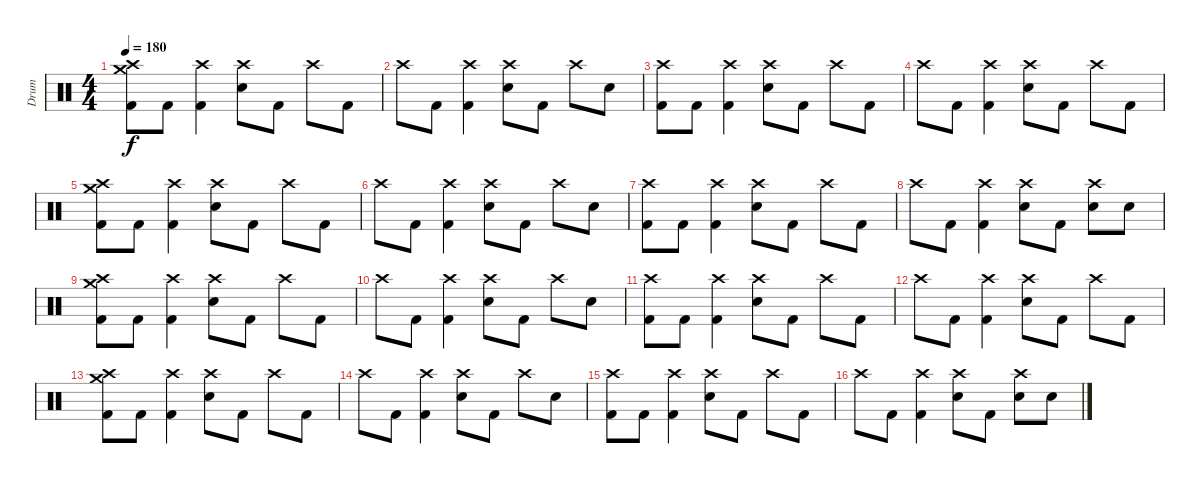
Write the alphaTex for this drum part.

\track ("Drum" "Drum") {instrument percussion}
\staff {score}
\articulation defaults
\ts (4 4)
\section ("" "")
\tempo 180
\clef neutral
\ks c
("Crash medium (hit)" "Crash high (hit)" "Kick (hit) 2").8{dy f} "Kick (hit) 2".8 ("Crash high (hit)" "Kick (hit) 2").4 ("Crash high (hit)" "Snare (hit) 2").8 "Kick (hit) 2".8 "Crash high (hit)".8 "Kick (hit) 2".8 |
"Crash high (hit)".8 "Kick (hit) 2".8 ("Crash high (hit)" "Kick (hit) 2").4 ("Crash high (hit)" "Snare (hit) 2").8 "Kick (hit) 2".8 "Crash high (hit)".8 "Snare (hit) 2".8 |
("Crash high (hit)" "Kick (hit) 2").8 "Kick (hit) 2".8 ("Crash high (hit)" "Kick (hit) 2").4 ("Crash high (hit)" "Snare (hit) 2").8 "Kick (hit) 2".8 "Crash high (hit)".8 "Kick (hit) 2".8 |
"Crash high (hit)".8 "Kick (hit) 2".8 ("Crash high (hit)" "Kick (hit) 2").4 ("Crash high (hit)" "Snare (hit) 2").8 "Kick (hit) 2".8 "Crash high (hit)".8 "Kick (hit) 2".8 |
("Crash high (hit)" "Crash medium (hit)" "Kick (hit) 2").8 "Kick (hit) 2".8 ("Crash high (hit)" "Kick (hit) 2").4 ("Crash high (hit)" "Snare (hit) 2").8 "Kick (hit) 2".8 "Crash high (hit)".8 "Kick (hit) 2".8 |
"Crash high (hit)".8 "Kick (hit) 2".8 ("Crash high (hit)" "Kick (hit) 2").4 ("Crash high (hit)" "Snare (hit) 2").8 "Kick (hit) 2".8 "Crash high (hit)".8 "Snare (hit) 2".8 |
("Crash high (hit)" "Kick (hit) 2").8 "Kick (hit) 2".8 ("Crash high (hit)" "Kick (hit) 2").4 ("Crash high (hit)" "Snare (hit) 2").8 "Kick (hit) 2".8 "Crash high (hit)".8 "Kick (hit) 2".8 |
"Crash high (hit)".8 "Kick (hit) 2".8 ("Crash high (hit)" "Kick (hit) 2").4 ("Crash high (hit)" "Snare (hit) 2").8 "Kick (hit) 2".8 ("Crash high (hit)" "Snare (hit) 2").8 "Snare (hit) 2".8 |
("Crash medium (hit)" "Crash high (hit)" "Kick (hit) 2").8 "Kick (hit) 2".8 ("Crash high (hit)" "Kick (hit) 2").4 ("Crash high (hit)" "Snare (hit) 2").8 "Kick (hit) 2".8 "Crash high (hit)".8 "Kick (hit) 2".8 |
"Crash high (hit)".8 "Kick (hit) 2".8 ("Crash high (hit)" "Kick (hit) 2").4 ("Crash high (hit)" "Snare (hit) 2").8 "Kick (hit) 2".8 "Crash high (hit)".8 "Snare (hit) 2".8 |
("Crash high (hit)" "Kick (hit) 2").8 "Kick (hit) 2".8 ("Crash high (hit)" "Kick (hit) 2").4 ("Crash high (hit)" "Snare (hit) 2").8 "Kick (hit) 2".8 "Crash high (hit)".8 "Kick (hit) 2".8 |
"Crash high (hit)".8 "Kick (hit) 2".8 ("Crash high (hit)" "Kick (hit) 2").4 ("Crash high (hit)" "Snare (hit) 2").8 "Kick (hit) 2".8 "Crash high (hit)".8 "Kick (hit) 2".8 |
("Crash high (hit)" "Crash medium (hit)" "Kick (hit) 2").8 "Kick (hit) 2".8 ("Crash high (hit)" "Kick (hit) 2").4 ("Crash high (hit)" "Snare (hit) 2").8 "Kick (hit) 2".8 "Crash high (hit)".8 "Kick (hit) 2".8 |
"Crash high (hit)".8 "Kick (hit) 2".8 ("Crash high (hit)" "Kick (hit) 2").4 ("Crash high (hit)" "Snare (hit) 2").8 "Kick (hit) 2".8 "Crash high (hit)".8 "Snare (hit) 2".8 |
("Crash high (hit)" "Kick (hit) 2").8 "Kick (hit) 2".8 ("Crash high (hit)" "Kick (hit) 2").4 ("Crash high (hit)" "Snare (hit) 2").8 "Kick (hit) 2".8 "Crash high (hit)".8 "Kick (hit) 2".8 |
"Crash high (hit)".8 "Kick (hit) 2".8 ("Crash high (hit)" "Kick (hit) 2").4 ("Crash high (hit)" "Snare (hit) 2").8 "Kick (hit) 2".8 ("Crash high (hit)" "Snare (hit) 2").8 "Snare (hit) 2".8
